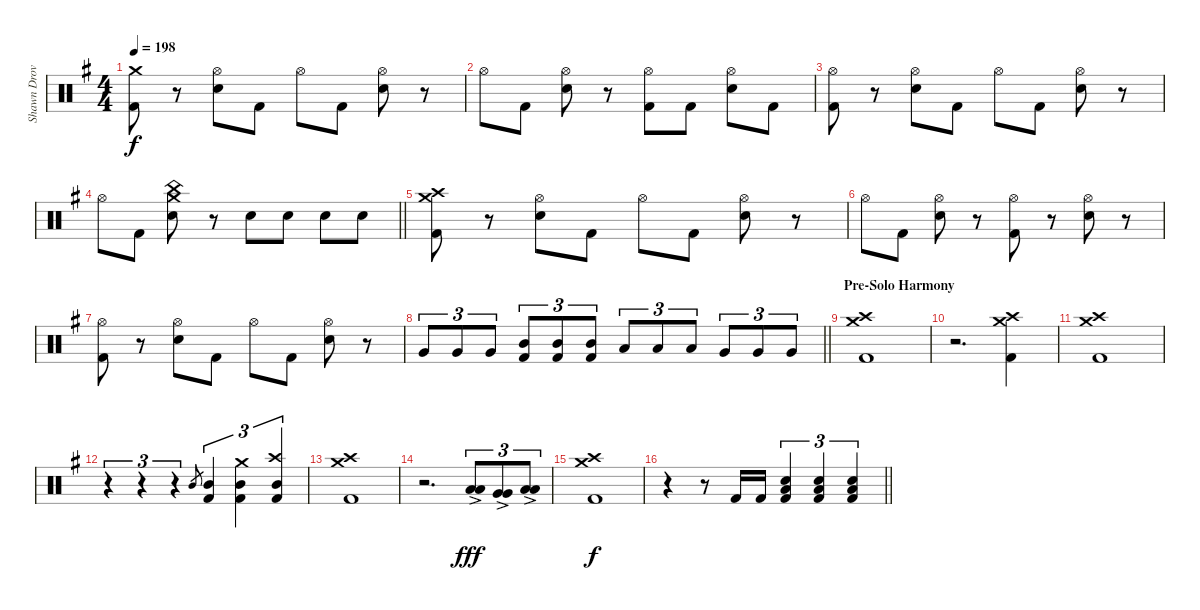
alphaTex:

\track ("Shawn Drover" "Shawn Drov") {instrument percussion}
\staff {score}
\articulation defaults
\ts (4 4)
\tempo 198
\clef neutral
\ks g
("Crash medium (hit)" "Kick (hit) 2").8{dy f} r.8 ("Hi-Hat (open)" "Snare (hit) 2").8 "Kick (hit) 2".8 "Hi-Hat (open)".8 "Kick (hit) 2".8 ("Hi-Hat (open)" "Snare (hit) 2").8 r.8 |
"Hi-Hat (open)".8 "Kick (hit) 2".8 ("Hi-Hat (open)" "Snare (hit) 2").8 r.8 ("Hi-Hat (open)" "Kick (hit) 2").8 "Kick (hit) 2".8 ("Hi-Hat (open)" "Snare (hit) 2").8 "Kick (hit) 2".8 |
("Hi-Hat (open)" "Kick (hit) 2").8 r.8 ("Hi-Hat (open)" "Snare (hit) 2").8 "Kick (hit) 2".8 "Hi-Hat (open)".8 "Kick (hit) 2".8 ("Hi-Hat (open)" "Snare (hit) 2").8 r.8 |
\barLineRight lightlight "Hi-Hat (open)".8 "Kick (hit) 2".8
("Crash medium (hit)" "China (hit)" "Snare (hit) 2").8 r.8 "Snare (hit) 2".8 "Snare (hit) 2".8 "Snare (hit) 2".8 "Snare (hit) 2".8 |
("Crash high (hit)" "Crash medium (hit)" "Kick (hit) 2").8 r.8 ("Hi-Hat (open)" "Snare (hit) 2").8 "Kick (hit) 2".8 "Hi-Hat (open)".8 "Kick (hit) 2".8 ("Hi-Hat (open)" "Snare (hit) 2").8 r.8 |
"Hi-Hat (open)".8 "Kick (hit) 2".8 ("Hi-Hat (open)" "Snare (hit) 2").8 r.8 ("Hi-Hat (open)" "Kick (hit) 2").8 r.8 ("Hi-Hat (open)" "Snare (hit) 2").8 r.8 |
("Hi-Hat (open)" "Kick (hit) 2").8 r.8 ("Hi-Hat (open)" "Snare (hit) 2").8 "Kick (hit) 2".8 "Hi-Hat (open)".8 "Kick (hit) 2".8 ("Hi-Hat (open)" "Snare (hit) 2").8 r.8 |
\barLineRight lightlight "Very Low Tom (hit)".8{tu (3 2)} "Very Low Tom (hit)".8{tu (3 2)} "Very Low Tom (hit)".8{tu (3 2)}
("Mid Tom (hit)" "Kick (hit) 2").8{tu (3 2)} ("Mid Tom (hit)" "Kick (hit) 2").8{tu (3 2)} ("Mid Tom (hit)" "Kick (hit) 2").8{tu (3 2)} "Low Tom (hit)".8{tu (3 2)} "Low Tom (hit)".8{tu (3 2)} "Low Tom (hit)".8{tu (3 2)} "Very Low Tom (hit)".8{tu (3 2)} "Very Low Tom (hit)".8{tu (3 2)} "Very Low Tom (hit)".8{tu (3 2)} |
\section ("" "Pre-Solo Harmony")
("Crash medium (hit)" "Crash high (hit)" "Kick (hit) 2").1 |
r.2{d} ("Crash medium (hit)" "Crash high (hit)" "Kick (hit) 2").4 |
("Crash medium (hit)" "Crash high (hit)" "Kick (hit) 2").1 |
r.4{tu (3 2)} r.4{tu (3 2)} r.4{tu (3 2)} "Mid Tom (hit)".8{gr} ("Mid Tom (hit)" "Kick (hit) 2").4{tu (3 2)} ("Crash medium (hit)" "Mid Tom (hit)" "Kick (hit) 2").4{tu (3 2)} ("Crash high (hit)" "Mid Tom (hit)" "Kick (hit) 2").4{tu (3 2)} |
("Crash medium (hit)" "Crash high (hit)" "Kick (hit) 2").1 |
r.2{d} ("Low Tom (hit)"{ac} "Low Tom (hit)"{ac}).8{tu (3 2) dy fff} ("Very Low Tom (hit)"{ac} "Very Low Tom (hit)"{ac}).8{tu (3 2)} ("Low Floor Tom (hit)"{ac} "Low Floor Tom (hit)"{ac}).8{tu (3 2)} |
("Crash medium (hit)" "Crash high (hit)" "Kick (hit) 2").1{dy f} |
\barLineRight lightlight
r.4 r.8 "Kick (hit) 2".16 "Kick (hit) 2".16 ("Low Floor Tom (hit)" "Snare (hit) 2" "Kick (hit) 2").4{tu (3 2)} ("Low Floor Tom (hit)" "Snare (hit) 2" "Kick (hit) 2").4{tu (3 2)} ("Low Floor Tom (hit)" "Snare (hit) 2" "Kick (hit) 2").4{tu (3 2)}
